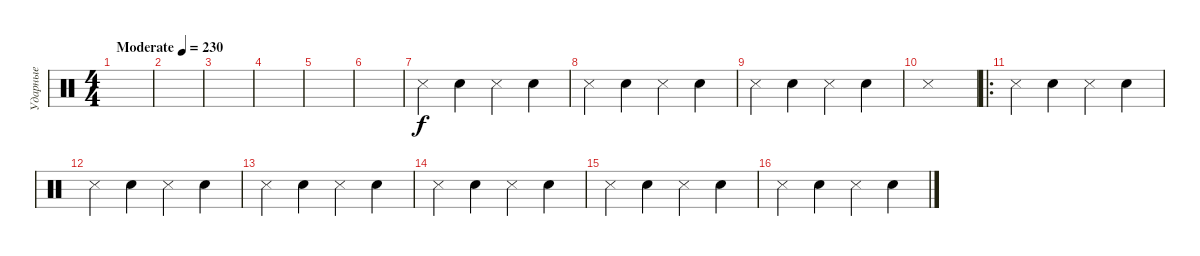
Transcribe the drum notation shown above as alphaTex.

\track ("Ударные" "Ударные") {instrument percussion}
\staff {score}
\articulation defaults
\ts (4 4)
\tempo (230 "Moderate")
\clef neutral
\ks c
|
|
|
|
|
|
"Snare (side stick) 3".4 "Hand Clap (hit)".4 "Snare (side stick) 3".4 "Hand Clap (hit)".4 |
"Snare (side stick) 3".4 "Hand Clap (hit)".4 "Snare (side stick) 3".4 "Hand Clap (hit)".4 |
"Snare (side stick) 3".4 "Hand Clap (hit)".4 "Snare (side stick) 3".4 "Hand Clap (hit)".4 |
"Snare (side stick) 3".1 |
\ro "Snare (side stick) 3".4 "Hand Clap (hit)".4 "Snare (side stick) 3".4 "Hand Clap (hit)".4
|
"Snare (side stick) 3".4 "Hand Clap (hit)".4 "Snare (side stick) 3".4 "Hand Clap (hit)".4 |
"Snare (side stick) 3".4 "Hand Clap (hit)".4 "Snare (side stick) 3".4 "Hand Clap (hit)".4 |
"Snare (side stick) 3".4 "Hand Clap (hit)".4 "Snare (side stick) 3".4 "Hand Clap (hit)".4 |
"Snare (side stick) 3".4 "Hand Clap (hit)".4 "Snare (side stick) 3".4 "Hand Clap (hit)".4 |
"Snare (side stick) 3".4 "Hand Clap (hit)".4 "Snare (side stick) 3".4 "Hand Clap (hit)".4
